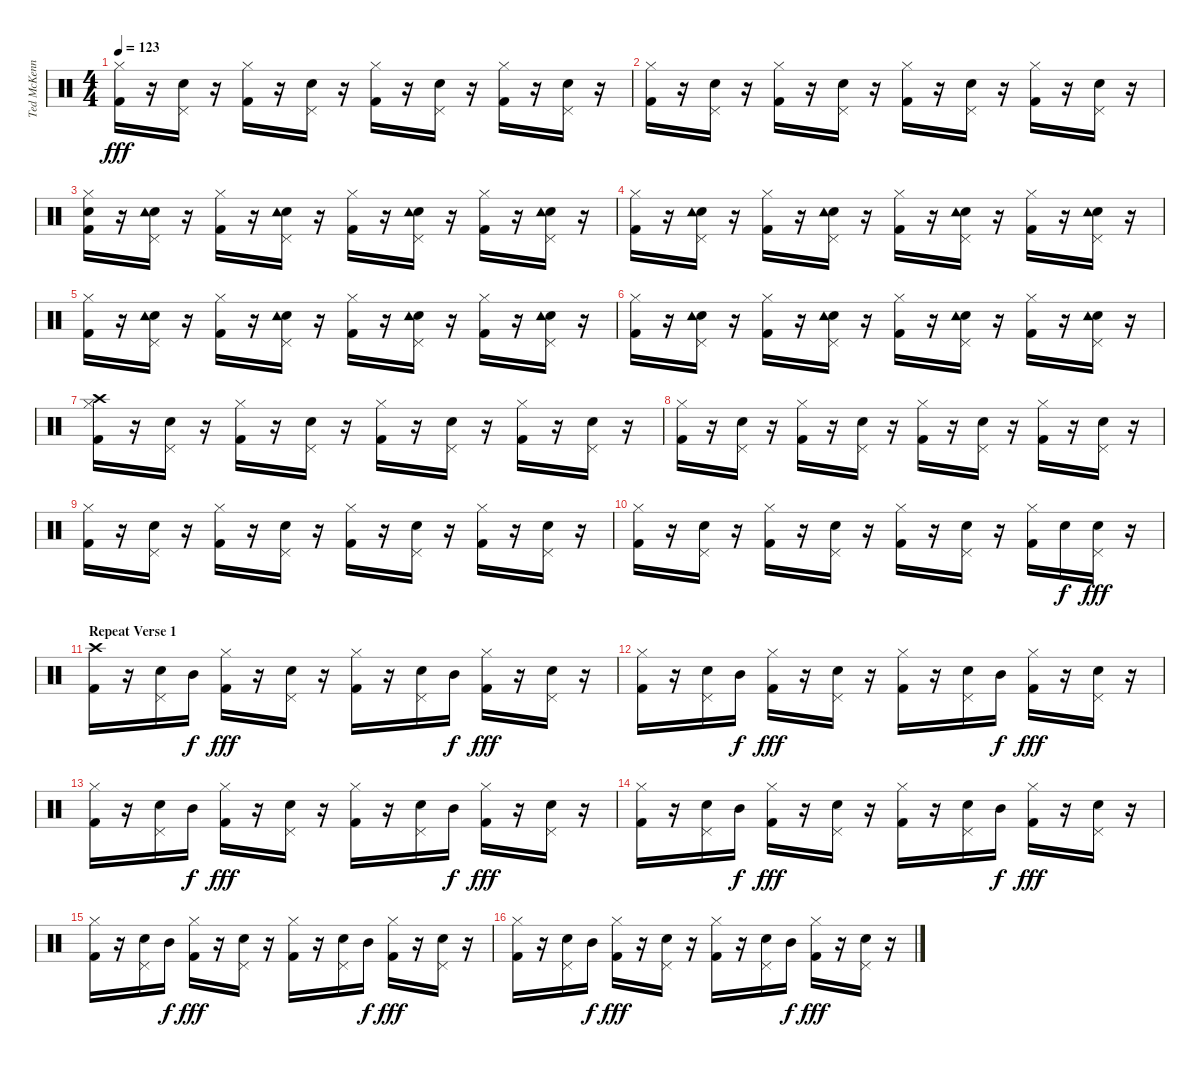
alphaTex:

\track ("Ted McKenna" "Ted McKenn") {instrument percussion}
\staff {score}
\articulation defaults
\ts (4 4)
\tempo 123
\clef neutral
\ks c
("Hi-Hat (closed)" "Kick (hit) 2").16{dy fff} r.16 ("Snare (hit) 2" "Pedal Hi-Hat (hit)").16 r.16 ("Hi-Hat (closed)" "Kick (hit) 2").16 r.16 ("Snare (hit) 2" "Pedal Hi-Hat (hit)").16 r.16 ("Hi-Hat (closed)" "Kick (hit) 2").16 r.16 ("Snare (hit) 2" "Pedal Hi-Hat (hit)").16 r.16 ("Hi-Hat (closed)" "Kick (hit) 2").16 r.16 ("Snare (hit) 2" "Pedal Hi-Hat (hit)").16 r.16 |
("Hi-Hat (closed)" "Kick (hit) 2").16 r.16 ("Snare (hit) 2" "Pedal Hi-Hat (hit)").16 r.16 ("Hi-Hat (closed)" "Kick (hit) 2").16 r.16 ("Snare (hit) 2" "Pedal Hi-Hat (hit)").16 r.16 ("Hi-Hat (closed)" "Kick (hit) 2").16 r.16 ("Snare (hit) 2" "Pedal Hi-Hat (hit)").16 r.16 ("Hi-Hat (closed)" "Kick (hit) 2").16 r.16 ("Snare (hit) 2" "Pedal Hi-Hat (hit)").16 r.16 |
("Snare (hit) 2" "Hi-Hat (closed)" "Kick (hit) 2").16 r.16 ("Electric Snare (hit)" "Pedal Hi-Hat (hit)" "Tambourine (hit)").16 r.16 ("Hi-Hat (closed)" "Kick (hit) 2").16 r.16 ("Snare (hit) 2" "Pedal Hi-Hat (hit)" "Tambourine (hit)").16 r.16 ("Hi-Hat (closed)" "Kick (hit) 2").16 r.16 ("Snare (hit) 2" "Pedal Hi-Hat (hit)" "Tambourine (hit)").16 r.16 ("Hi-Hat (closed)" "Kick (hit) 2").16 r.16 ("Snare (hit) 2" "Pedal Hi-Hat (hit)" "Tambourine (hit)").16 r.16 |
("Hi-Hat (closed)" "Kick (hit) 2").16 r.16 ("Electric Snare (hit)" "Pedal Hi-Hat (hit)" "Tambourine (hit)").16 r.16 ("Hi-Hat (closed)" "Kick (hit) 2").16 r.16 ("Snare (hit) 2" "Pedal Hi-Hat (hit)" "Tambourine (hit)").16 r.16 ("Hi-Hat (closed)" "Kick (hit) 2").16 r.16 ("Snare (hit) 2" "Pedal Hi-Hat (hit)" "Tambourine (hit)").16 r.16 ("Hi-Hat (closed)" "Kick (hit) 2").16 r.16 ("Snare (hit) 2" "Pedal Hi-Hat (hit)" "Tambourine (hit)").16 r.16 |
("Hi-Hat (closed)" "Kick (hit) 2").16 r.16 ("Electric Snare (hit)" "Pedal Hi-Hat (hit)" "Tambourine (hit)").16 r.16 ("Hi-Hat (closed)" "Kick (hit) 2").16 r.16 ("Snare (hit) 2" "Pedal Hi-Hat (hit)" "Tambourine (hit)").16 r.16 ("Hi-Hat (closed)" "Kick (hit) 2").16 r.16 ("Snare (hit) 2" "Pedal Hi-Hat (hit)" "Tambourine (hit)").16 r.16 ("Hi-Hat (closed)" "Kick (hit) 2").16 r.16 ("Snare (hit) 2" "Pedal Hi-Hat (hit)" "Tambourine (hit)").16 r.16 |
("Hi-Hat (closed)" "Kick (hit) 2").16 r.16 ("Electric Snare (hit)" "Pedal Hi-Hat (hit)" "Tambourine (hit)").16 r.16 ("Hi-Hat (closed)" "Kick (hit) 2").16 r.16 ("Snare (hit) 2" "Pedal Hi-Hat (hit)" "Tambourine (hit)").16 r.16 ("Hi-Hat (closed)" "Kick (hit) 2").16 r.16 ("Snare (hit) 2" "Pedal Hi-Hat (hit)" "Tambourine (hit)").16 r.16 ("Hi-Hat (closed)" "Kick (hit) 2").16 r.16 ("Snare (hit) 2" "Pedal Hi-Hat (hit)" "Tambourine (hit)").16 r.16 |
("Crash high (hit)" "Hi-Hat (closed)" "Kick (hit) 2").16 r.16 ("Snare (hit) 2" "Pedal Hi-Hat (hit)").16 r.16 ("Hi-Hat (closed)" "Kick (hit) 2").16 r.16 ("Snare (hit) 2" "Pedal Hi-Hat (hit)").16 r.16 ("Hi-Hat (closed)" "Kick (hit) 2").16 r.16 ("Snare (hit) 2" "Pedal Hi-Hat (hit)").16 r.16 ("Hi-Hat (closed)" "Kick (hit) 2").16 r.16 ("Snare (hit) 2" "Pedal Hi-Hat (hit)").16 r.16 |
("Hi-Hat (closed)" "Kick (hit) 2").16 r.16 ("Snare (hit) 2" "Pedal Hi-Hat (hit)").16 r.16 ("Hi-Hat (closed)" "Kick (hit) 2").16 r.16 ("Snare (hit) 2" "Pedal Hi-Hat (hit)").16 r.16 ("Hi-Hat (closed)" "Kick (hit) 2").16 r.16 ("Snare (hit) 2" "Pedal Hi-Hat (hit)").16 r.16 ("Hi-Hat (closed)" "Kick (hit) 2").16 r.16 ("Snare (hit) 2" "Pedal Hi-Hat (hit)").16 r.16 |
("Hi-Hat (closed)" "Kick (hit) 2").16 r.16 ("Snare (hit) 2" "Pedal Hi-Hat (hit)").16 r.16 ("Hi-Hat (closed)" "Kick (hit) 2").16 r.16 ("Snare (hit) 2" "Pedal Hi-Hat (hit)").16 r.16 ("Hi-Hat (closed)" "Kick (hit) 2").16 r.16 ("Snare (hit) 2" "Pedal Hi-Hat (hit)").16 r.16 ("Hi-Hat (closed)" "Kick (hit) 2").16 r.16 ("Snare (hit) 2" "Pedal Hi-Hat (hit)").16 r.16 |
("Hi-Hat (closed)" "Kick (hit) 2").16 r.16 ("Snare (hit) 2" "Pedal Hi-Hat (hit)").16 r.16 ("Hi-Hat (closed)" "Kick (hit) 2").16 r.16 ("Snare (hit) 2" "Pedal Hi-Hat (hit)").16 r.16 ("Hi-Hat (closed)" "Kick (hit) 2").16 r.16 ("Snare (hit) 2" "Pedal Hi-Hat (hit)").16 r.16 ("Hi-Hat (closed)" "Kick (hit) 2").16 "Snare (hit) 2".16{dy f} ("Electric Snare (hit)" "Pedal Hi-Hat (hit)").16{dy fff} r.16 |
\section ("" "Repeat Verse 1")
("Crash high (hit)" "Kick (hit) 2").16 r.16 ("Snare (hit) 2" "Pedal Hi-Hat (hit)").16 "Mid Tom (hit)".16{dy f} ("Hi-Hat (closed)" "Kick (hit) 2").16{dy fff} r.16 ("Snare (hit) 2" "Pedal Hi-Hat (hit)").16 r.16 ("Hi-Hat (closed)" "Kick (hit) 2").16 r.16 ("Snare (hit) 2" "Pedal Hi-Hat (hit)").16 "Mid Tom (hit)".16{dy f} ("Hi-Hat (closed)" "Kick (hit) 2").16{dy fff} r.16 ("Snare (hit) 2" "Pedal Hi-Hat (hit)").16 r.16 |
("Hi-Hat (closed)" "Kick (hit) 2").16 r.16 ("Snare (hit) 2" "Pedal Hi-Hat (hit)").16 "Mid Tom (hit)".16{dy f} ("Hi-Hat (closed)" "Kick (hit) 2").16{dy fff} r.16 ("Snare (hit) 2" "Pedal Hi-Hat (hit)").16 r.16 ("Hi-Hat (closed)" "Kick (hit) 2").16 r.16 ("Snare (hit) 2" "Pedal Hi-Hat (hit)").16 "Mid Tom (hit)".16{dy f} ("Hi-Hat (closed)" "Kick (hit) 2").16{dy fff} r.16 ("Snare (hit) 2" "Pedal Hi-Hat (hit)").16 r.16 |
("Hi-Hat (closed)" "Kick (hit) 2").16 r.16 ("Snare (hit) 2" "Pedal Hi-Hat (hit)").16 "Mid Tom (hit)".16{dy f} ("Hi-Hat (closed)" "Kick (hit) 2").16{dy fff} r.16 ("Snare (hit) 2" "Pedal Hi-Hat (hit)").16 r.16 ("Hi-Hat (closed)" "Kick (hit) 2").16 r.16 ("Snare (hit) 2" "Pedal Hi-Hat (hit)").16 "Mid Tom (hit)".16{dy f} ("Hi-Hat (closed)" "Kick (hit) 2").16{dy fff} r.16 ("Snare (hit) 2" "Pedal Hi-Hat (hit)").16 r.16 |
("Hi-Hat (closed)" "Kick (hit) 2").16 r.16 ("Snare (hit) 2" "Pedal Hi-Hat (hit)").16 "Mid Tom (hit)".16{dy f} ("Hi-Hat (closed)" "Kick (hit) 2").16{dy fff} r.16 ("Snare (hit) 2" "Pedal Hi-Hat (hit)").16 r.16 ("Hi-Hat (closed)" "Kick (hit) 2").16 r.16 ("Snare (hit) 2" "Pedal Hi-Hat (hit)").16 "Mid Tom (hit)".16{dy f} ("Hi-Hat (closed)" "Kick (hit) 2").16{dy fff} r.16 ("Snare (hit) 2" "Pedal Hi-Hat (hit)").16 r.16 |
("Hi-Hat (closed)" "Kick (hit) 2").16 r.16 ("Snare (hit) 2" "Pedal Hi-Hat (hit)").16 "Mid Tom (hit)".16{dy f} ("Hi-Hat (closed)" "Kick (hit) 2").16{dy fff} r.16 ("Snare (hit) 2" "Pedal Hi-Hat (hit)").16 r.16 ("Hi-Hat (closed)" "Kick (hit) 2").16 r.16 ("Snare (hit) 2" "Pedal Hi-Hat (hit)").16 "Mid Tom (hit)".16{dy f} ("Hi-Hat (closed)" "Kick (hit) 2").16{dy fff} r.16 ("Snare (hit) 2" "Pedal Hi-Hat (hit)").16 r.16 |
("Hi-Hat (closed)" "Kick (hit) 2").16 r.16 ("Snare (hit) 2" "Pedal Hi-Hat (hit)").16 "Mid Tom (hit)".16{dy f} ("Hi-Hat (closed)" "Kick (hit) 2").16{dy fff} r.16 ("Snare (hit) 2" "Pedal Hi-Hat (hit)").16 r.16 ("Hi-Hat (closed)" "Kick (hit) 2").16 r.16 ("Snare (hit) 2" "Pedal Hi-Hat (hit)").16 "Mid Tom (hit)".16{dy f} ("Hi-Hat (closed)" "Kick (hit) 2").16{dy fff} r.16 ("Snare (hit) 2" "Pedal Hi-Hat (hit)").16 r.16
